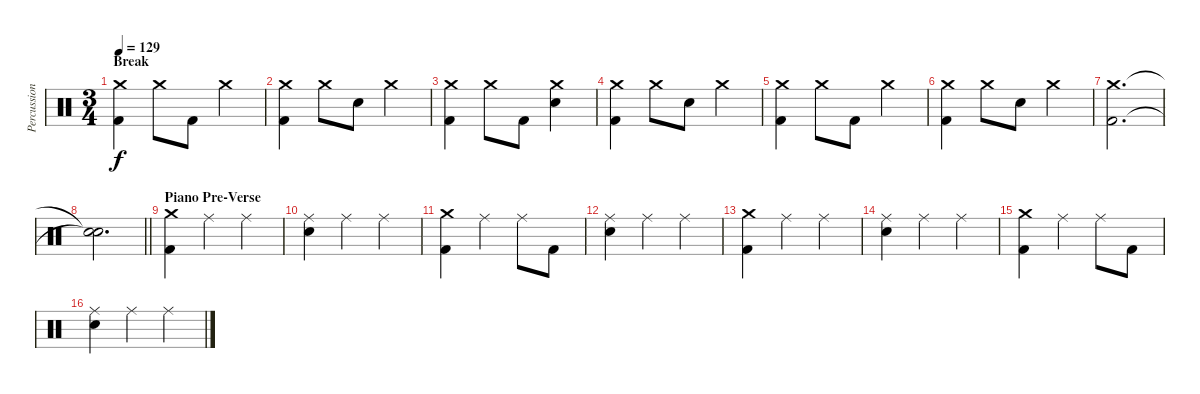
\track ("Percussion" "Percussion") {instrument percussion}
\staff {score}
\articulation defaults
\ts (3 4)
\section ("" "Break")
\tempo 129
\clef neutral
\ks c
("Crash medium (hit)" "Kick (hit) 2").4{dy f} "Crash medium (hit)".8 "Kick (hit) 2".8 "Crash medium (hit)".4 |
("Crash medium (hit)" "Kick (hit) 2").4 "Crash medium (hit)".8 "Electric Snare (hit)".8 "Crash medium (hit)".4 |
("Crash medium (hit)" "Kick (hit) 2").4 "Crash medium (hit)".8 "Kick (hit) 2".8 ("Crash medium (hit)" "Electric Snare (hit)").4 |
("Crash medium (hit)" "Kick (hit) 2").4 "Crash medium (hit)".8 "Electric Snare (hit)".8 "Crash medium (hit)".4 |
("Crash medium (hit)" "Kick (hit) 2").4 "Crash medium (hit)".8 "Kick (hit) 2".8 "Crash medium (hit)".4 |
("Crash medium (hit)" "Kick (hit) 2").4 "Crash medium (hit)".8 "Electric Snare (hit)".8 "Crash medium (hit)".4 |
("Crash medium (hit)" "Kick (hit) 2").2{d} |
\barLineRight lightlight
("Snare (hit)"{t} "Snare (hit)"{t}).2{d} |
\section ("" "Piano Pre-Verse")
("Crash medium (hit)" "Kick (hit) 2").4 "Ride (middle)".4 "Ride (middle)".4 |
("Ride (middle)" "Electric Snare (hit)").4 "Ride (middle)".4 "Ride (middle)".4 |
("Crash medium (hit)" "Kick (hit) 2").4 "Ride (middle)".4 "Ride (middle)".8 "Kick (hit) 2".8 |
("Ride (middle)" "Electric Snare (hit)").4 "Ride (middle)".4 "Ride (middle)".4 |
("Crash medium (hit)" "Kick (hit) 2").4 "Ride (middle)".4 "Ride (middle)".4 |
("Ride (middle)" "Electric Snare (hit)").4 "Ride (middle)".4 "Ride (middle)".4 |
("Crash medium (hit)" "Kick (hit) 2").4 "Ride (middle)".4 "Ride (middle)".8 "Kick (hit) 2".8 |
("Ride (middle)" "Electric Snare (hit)").4 "Ride (middle)".4 "Ride (middle)".4
